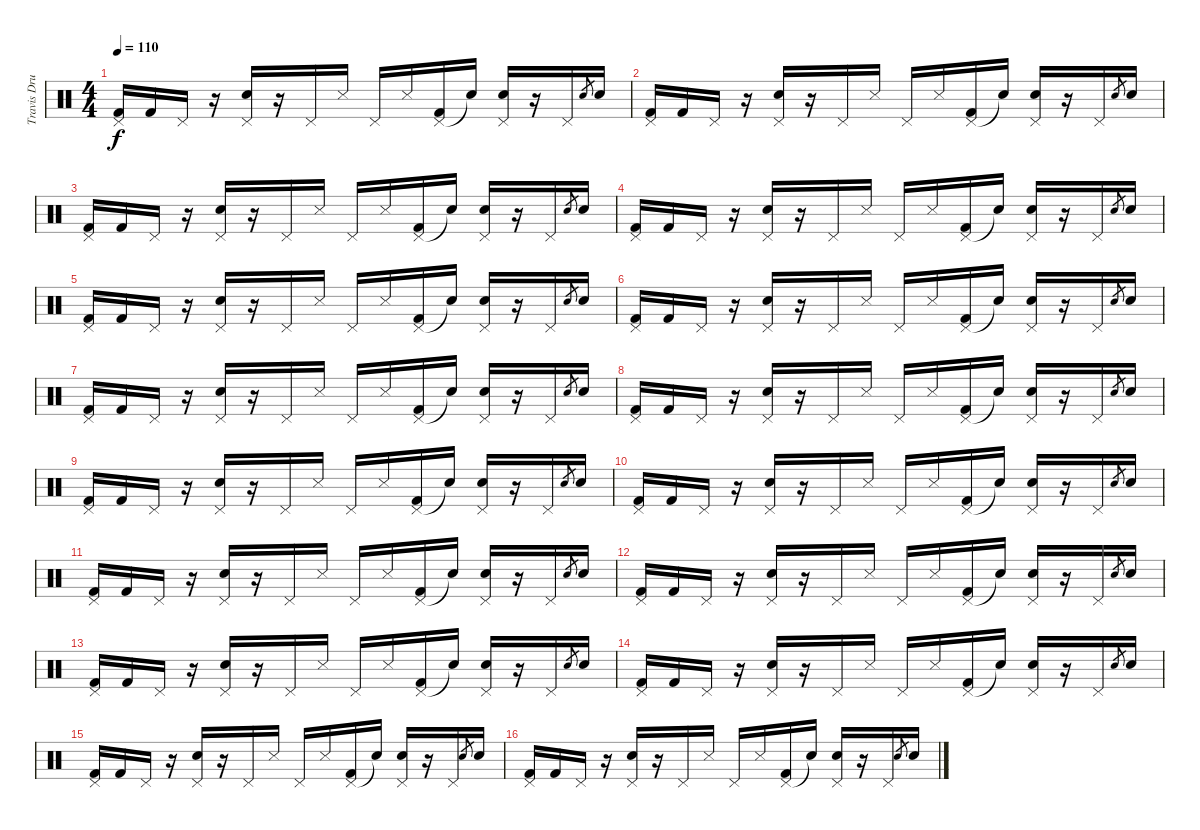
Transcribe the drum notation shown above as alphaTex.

\track ("Travis Drums" "Travis Dru") {instrument percussion}
\staff {score}
\articulation defaults
\ts (4 4)
\tempo 110
\clef neutral
\ks c
("Pedal Hi-Hat (hit)" "Kick (hit) 2").16{dy f} "Kick (hit) 2".16 "Pedal Hi-Hat (hit)".16 r.16 ("Pedal Hi-Hat (hit)" "Electric Snare (hit)").16 r.16 "Pedal Hi-Hat (hit)".16 "Metronome (hit)".16 "Pedal Hi-Hat (hit)".16 "Metronome (hit)".16 ("Pedal Hi-Hat (hit)" "Kick (hit) 2").16 "Snare (hit)"{t}.16 ("Pedal Hi-Hat (hit)" "Electric Snare (hit)").16 r.16 "Pedal Hi-Hat (hit)".16 "Electric Snare (hit)".8{gr} "Electric Snare (hit)".16 |
("Pedal Hi-Hat (hit)" "Kick (hit) 2").16 "Kick (hit) 2".16 "Pedal Hi-Hat (hit)".16 r.16 ("Pedal Hi-Hat (hit)" "Electric Snare (hit)").16 r.16 "Pedal Hi-Hat (hit)".16 "Metronome (hit)".16 "Pedal Hi-Hat (hit)".16 "Metronome (hit)".16 ("Pedal Hi-Hat (hit)" "Kick (hit) 2").16 "Snare (hit)"{t}.16 ("Pedal Hi-Hat (hit)" "Electric Snare (hit)").16 r.16 "Pedal Hi-Hat (hit)".16 "Electric Snare (hit)".8{gr} "Electric Snare (hit)".16 |
("Pedal Hi-Hat (hit)" "Kick (hit) 2").16 "Kick (hit) 2".16 "Pedal Hi-Hat (hit)".16 r.16 ("Pedal Hi-Hat (hit)" "Electric Snare (hit)").16 r.16 "Pedal Hi-Hat (hit)".16 "Metronome (hit)".16 "Pedal Hi-Hat (hit)".16 "Metronome (hit)".16 ("Pedal Hi-Hat (hit)" "Kick (hit) 2").16 "Snare (hit)"{t}.16 ("Pedal Hi-Hat (hit)" "Electric Snare (hit)").16 r.16 "Pedal Hi-Hat (hit)".16 "Electric Snare (hit)".8{gr} "Electric Snare (hit)".16 |
("Pedal Hi-Hat (hit)" "Kick (hit) 2").16 "Kick (hit) 2".16 "Pedal Hi-Hat (hit)".16 r.16 ("Pedal Hi-Hat (hit)" "Electric Snare (hit)").16 r.16 "Pedal Hi-Hat (hit)".16 "Metronome (hit)".16 "Pedal Hi-Hat (hit)".16 "Metronome (hit)".16 ("Pedal Hi-Hat (hit)" "Kick (hit) 2").16 "Snare (hit)"{t}.16 ("Pedal Hi-Hat (hit)" "Electric Snare (hit)").16 r.16 "Pedal Hi-Hat (hit)".16 "Electric Snare (hit)".8{gr} "Electric Snare (hit)".16 |
("Pedal Hi-Hat (hit)" "Kick (hit) 2").16 "Kick (hit) 2".16 "Pedal Hi-Hat (hit)".16 r.16 ("Pedal Hi-Hat (hit)" "Electric Snare (hit)").16 r.16 "Pedal Hi-Hat (hit)".16 "Metronome (hit)".16 "Pedal Hi-Hat (hit)".16 "Metronome (hit)".16 ("Pedal Hi-Hat (hit)" "Kick (hit) 2").16 "Snare (hit)"{t}.16 ("Pedal Hi-Hat (hit)" "Electric Snare (hit)").16 r.16 "Pedal Hi-Hat (hit)".16 "Electric Snare (hit)".8{gr} "Electric Snare (hit)".16 |
("Pedal Hi-Hat (hit)" "Kick (hit) 2").16 "Kick (hit) 2".16 "Pedal Hi-Hat (hit)".16 r.16 ("Pedal Hi-Hat (hit)" "Electric Snare (hit)").16 r.16 "Pedal Hi-Hat (hit)".16 "Metronome (hit)".16 "Pedal Hi-Hat (hit)".16 "Metronome (hit)".16 ("Pedal Hi-Hat (hit)" "Kick (hit) 2").16 "Snare (hit)"{t}.16 ("Pedal Hi-Hat (hit)" "Electric Snare (hit)").16 r.16 "Pedal Hi-Hat (hit)".16 "Electric Snare (hit)".8{gr} "Electric Snare (hit)".16 |
("Pedal Hi-Hat (hit)" "Kick (hit) 2").16 "Kick (hit) 2".16 "Pedal Hi-Hat (hit)".16 r.16 ("Pedal Hi-Hat (hit)" "Electric Snare (hit)").16 r.16 "Pedal Hi-Hat (hit)".16 "Metronome (hit)".16 "Pedal Hi-Hat (hit)".16 "Metronome (hit)".16 ("Pedal Hi-Hat (hit)" "Kick (hit) 2").16 "Snare (hit)"{t}.16 ("Pedal Hi-Hat (hit)" "Electric Snare (hit)").16 r.16 "Pedal Hi-Hat (hit)".16 "Electric Snare (hit)".8{gr} "Electric Snare (hit)".16 |
("Pedal Hi-Hat (hit)" "Kick (hit) 2").16 "Kick (hit) 2".16 "Pedal Hi-Hat (hit)".16 r.16 ("Pedal Hi-Hat (hit)" "Electric Snare (hit)").16 r.16 "Pedal Hi-Hat (hit)".16 "Metronome (hit)".16 "Pedal Hi-Hat (hit)".16 "Metronome (hit)".16 ("Pedal Hi-Hat (hit)" "Kick (hit) 2").16 "Snare (hit)"{t}.16 ("Pedal Hi-Hat (hit)" "Electric Snare (hit)").16 r.16 "Pedal Hi-Hat (hit)".16 "Electric Snare (hit)".8{gr} "Electric Snare (hit)".16 |
("Pedal Hi-Hat (hit)" "Kick (hit) 2").16 "Kick (hit) 2".16 "Pedal Hi-Hat (hit)".16 r.16 ("Pedal Hi-Hat (hit)" "Electric Snare (hit)").16 r.16 "Pedal Hi-Hat (hit)".16 "Metronome (hit)".16 "Pedal Hi-Hat (hit)".16 "Metronome (hit)".16 ("Pedal Hi-Hat (hit)" "Kick (hit) 2").16 "Snare (hit)"{t}.16 ("Pedal Hi-Hat (hit)" "Electric Snare (hit)").16 r.16 "Pedal Hi-Hat (hit)".16 "Electric Snare (hit)".8{gr} "Electric Snare (hit)".16 |
("Pedal Hi-Hat (hit)" "Kick (hit) 2").16 "Kick (hit) 2".16 "Pedal Hi-Hat (hit)".16 r.16 ("Pedal Hi-Hat (hit)" "Electric Snare (hit)").16 r.16 "Pedal Hi-Hat (hit)".16 "Metronome (hit)".16 "Pedal Hi-Hat (hit)".16 "Metronome (hit)".16 ("Pedal Hi-Hat (hit)" "Kick (hit) 2").16 "Snare (hit)"{t}.16 ("Pedal Hi-Hat (hit)" "Electric Snare (hit)").16 r.16 "Pedal Hi-Hat (hit)".16 "Electric Snare (hit)".8{gr} "Electric Snare (hit)".16 |
("Pedal Hi-Hat (hit)" "Kick (hit) 2").16 "Kick (hit) 2".16 "Pedal Hi-Hat (hit)".16 r.16 ("Pedal Hi-Hat (hit)" "Electric Snare (hit)").16 r.16 "Pedal Hi-Hat (hit)".16 "Metronome (hit)".16 "Pedal Hi-Hat (hit)".16 "Metronome (hit)".16 ("Pedal Hi-Hat (hit)" "Kick (hit) 2").16 "Snare (hit)"{t}.16 ("Pedal Hi-Hat (hit)" "Electric Snare (hit)").16 r.16 "Pedal Hi-Hat (hit)".16 "Electric Snare (hit)".8{gr} "Electric Snare (hit)".16 |
("Pedal Hi-Hat (hit)" "Kick (hit) 2").16 "Kick (hit) 2".16 "Pedal Hi-Hat (hit)".16 r.16 ("Pedal Hi-Hat (hit)" "Electric Snare (hit)").16 r.16 "Pedal Hi-Hat (hit)".16 "Metronome (hit)".16 "Pedal Hi-Hat (hit)".16 "Metronome (hit)".16 ("Pedal Hi-Hat (hit)" "Kick (hit) 2").16 "Snare (hit)"{t}.16 ("Pedal Hi-Hat (hit)" "Electric Snare (hit)").16 r.16 "Pedal Hi-Hat (hit)".16 "Electric Snare (hit)".8{gr} "Electric Snare (hit)".16 |
("Pedal Hi-Hat (hit)" "Kick (hit) 2").16 "Kick (hit) 2".16 "Pedal Hi-Hat (hit)".16 r.16 ("Pedal Hi-Hat (hit)" "Electric Snare (hit)").16 r.16 "Pedal Hi-Hat (hit)".16 "Metronome (hit)".16 "Pedal Hi-Hat (hit)".16 "Metronome (hit)".16 ("Pedal Hi-Hat (hit)" "Kick (hit) 2").16 "Snare (hit)"{t}.16 ("Pedal Hi-Hat (hit)" "Electric Snare (hit)").16 r.16 "Pedal Hi-Hat (hit)".16 "Electric Snare (hit)".8{gr} "Electric Snare (hit)".16 |
("Pedal Hi-Hat (hit)" "Kick (hit) 2").16 "Kick (hit) 2".16 "Pedal Hi-Hat (hit)".16 r.16 ("Pedal Hi-Hat (hit)" "Electric Snare (hit)").16 r.16 "Pedal Hi-Hat (hit)".16 "Metronome (hit)".16 "Pedal Hi-Hat (hit)".16 "Metronome (hit)".16 ("Pedal Hi-Hat (hit)" "Kick (hit) 2").16 "Snare (hit)"{t}.16 ("Pedal Hi-Hat (hit)" "Electric Snare (hit)").16 r.16 "Pedal Hi-Hat (hit)".16 "Electric Snare (hit)".8{gr} "Electric Snare (hit)".16 |
("Pedal Hi-Hat (hit)" "Kick (hit) 2").16 "Kick (hit) 2".16 "Pedal Hi-Hat (hit)".16 r.16 ("Pedal Hi-Hat (hit)" "Electric Snare (hit)").16 r.16 "Pedal Hi-Hat (hit)".16 "Metronome (hit)".16 "Pedal Hi-Hat (hit)".16 "Metronome (hit)".16 ("Pedal Hi-Hat (hit)" "Kick (hit) 2").16 "Snare (hit)"{t}.16 ("Pedal Hi-Hat (hit)" "Electric Snare (hit)").16 r.16 "Pedal Hi-Hat (hit)".16 "Electric Snare (hit)".8{gr} "Electric Snare (hit)".16 |
("Pedal Hi-Hat (hit)" "Kick (hit) 2").16 "Kick (hit) 2".16 "Pedal Hi-Hat (hit)".16 r.16 ("Pedal Hi-Hat (hit)" "Electric Snare (hit)").16 r.16 "Pedal Hi-Hat (hit)".16 "Metronome (hit)".16 "Pedal Hi-Hat (hit)".16 "Metronome (hit)".16 ("Pedal Hi-Hat (hit)" "Kick (hit) 2").16 "Snare (hit)"{t}.16 ("Pedal Hi-Hat (hit)" "Electric Snare (hit)").16 r.16 "Pedal Hi-Hat (hit)".16 "Electric Snare (hit)".8{gr} "Electric Snare (hit)".16
